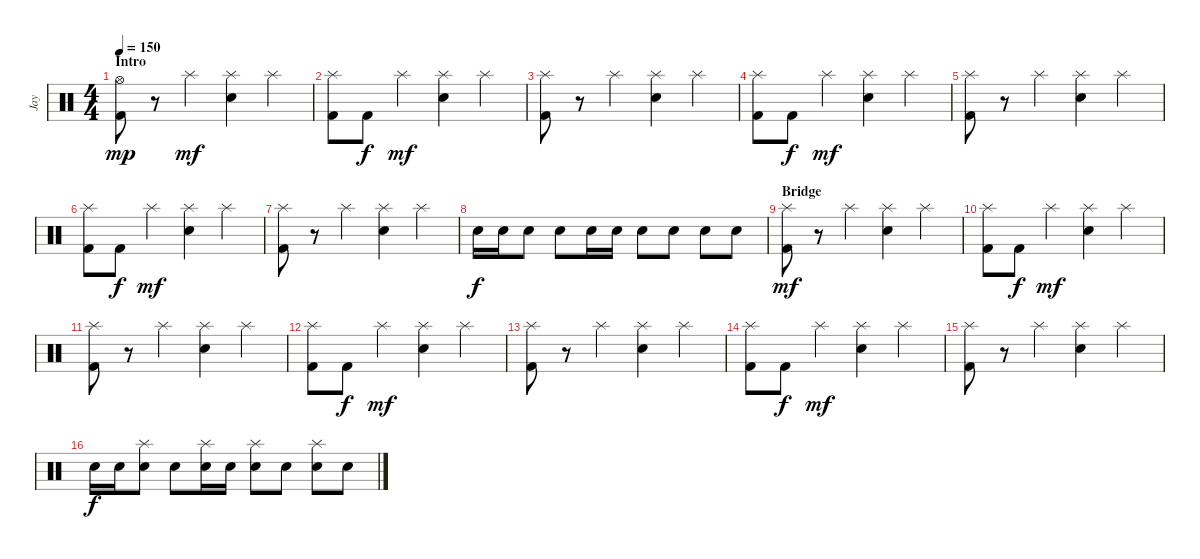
\track ("Jay" "Jay") {instrument percussion}
\staff {score}
\articulation defaults
\ts (4 4)
\section ("" "Intro")
\tempo 150
\clef neutral
\ks c
("Hi-Hat (open)" "Kick (hit) 2").8{dy mp} r.8 "Splash (hit)".4{dy mf} ("Splash (hit)" "Electric Snare (hit)").4 "Splash (hit)".4 |
("Splash (hit)" "Kick (hit) 2").8 "Kick (hit) 2".8{dy f} "Splash (hit)".4{dy mf} ("Splash (hit)" "Electric Snare (hit)").4 "Splash (hit)".4 |
("Splash (hit)" "Kick (hit) 2").8 r.8 "Splash (hit)".4 ("Splash (hit)" "Electric Snare (hit)").4 "Splash (hit)".4 |
("Splash (hit)" "Kick (hit) 2").8 "Kick (hit) 2".8{dy f} "Splash (hit)".4{dy mf} ("Splash (hit)" "Electric Snare (hit)").4 "Splash (hit)".4 |
("Splash (hit)" "Kick (hit) 2").8 r.8 "Splash (hit)".4 ("Splash (hit)" "Electric Snare (hit)").4 "Splash (hit)".4 |
("Splash (hit)" "Kick (hit) 2").8 "Kick (hit) 2".8{dy f} "Splash (hit)".4{dy mf} ("Splash (hit)" "Electric Snare (hit)").4 "Splash (hit)".4 |
("Splash (hit)" "Kick (hit) 2").8 r.8 "Splash (hit)".4 ("Splash (hit)" "Electric Snare (hit)").4 "Splash (hit)".4 |
"Electric Snare (hit)".16{dy f} "Electric Snare (hit)".16 "Electric Snare (hit)".8 "Electric Snare (hit)".8 "Electric Snare (hit)".16 "Electric Snare (hit)".16 "Electric Snare (hit)".8 "Electric Snare (hit)".8 "Electric Snare (hit)".8 "Electric Snare (hit)".8 |
\section ("" "Bridge")
("Splash (hit)" "Kick (hit) 2").8{dy mf} r.8 "Splash (hit)".4 ("Splash (hit)" "Electric Snare (hit)").4 "Splash (hit)".4 |
("Splash (hit)" "Kick (hit) 2").8 "Kick (hit) 2".8{dy f} "Splash (hit)".4{dy mf} ("Splash (hit)" "Electric Snare (hit)").4 "Splash (hit)".4 |
("Splash (hit)" "Kick (hit) 2").8 r.8 "Splash (hit)".4 ("Splash (hit)" "Electric Snare (hit)").4 "Splash (hit)".4 |
("Splash (hit)" "Kick (hit) 2").8 "Kick (hit) 2".8{dy f} "Splash (hit)".4{dy mf} ("Splash (hit)" "Electric Snare (hit)").4 "Splash (hit)".4 |
("Splash (hit)" "Kick (hit) 2").8 r.8 "Splash (hit)".4 ("Splash (hit)" "Electric Snare (hit)").4 "Splash (hit)".4 |
("Splash (hit)" "Kick (hit) 2").8 "Kick (hit) 2".8{dy f} "Splash (hit)".4{dy mf} ("Splash (hit)" "Electric Snare (hit)").4 "Splash (hit)".4 |
("Splash (hit)" "Kick (hit) 2").8 r.8 "Splash (hit)".4 ("Splash (hit)" "Electric Snare (hit)").4 "Splash (hit)".4 |
"Electric Snare (hit)".16{dy f} "Electric Snare (hit)".16 ("Splash (hit)" "Electric Snare (hit)").8 "Electric Snare (hit)".8 ("Splash (hit)" "Electric Snare (hit)").16 "Electric Snare (hit)".16 ("Splash (hit)" "Electric Snare (hit)").8 "Electric Snare (hit)".8 ("Splash (hit)" "Electric Snare (hit)").8 "Electric Snare (hit)".8
